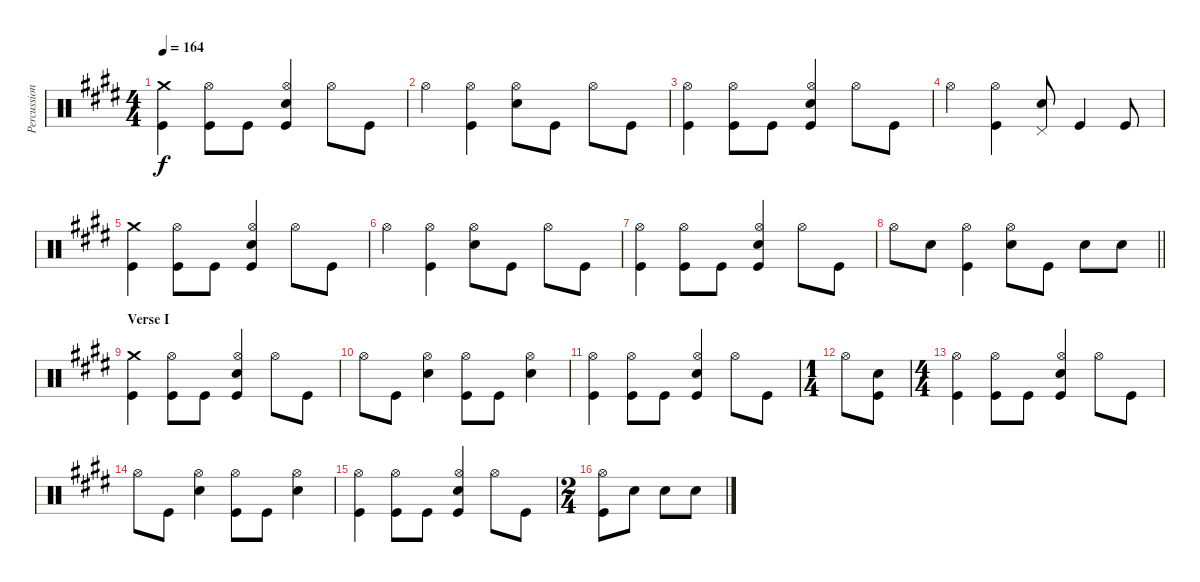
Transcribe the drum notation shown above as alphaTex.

\track ("Percussion" "Percussion") {instrument percussion}
\staff {score}
\articulation defaults
\ts (4 4)
\tempo 164
\clef neutral
\ks e
("Crash medium (hit)" "Kick (hit)").4{dy f} ("Hi-Hat (open)" "Kick (hit)").8 "Kick (hit)".8 ("Hi-Hat (open)" "Electric Snare (hit)" "Kick (hit)").4 "Hi-Hat (open)".8 "Kick (hit)".8 |
"Hi-Hat (open)".4 ("Hi-Hat (open)" "Kick (hit)").4 ("Hi-Hat (open)" "Electric Snare (hit)").8 "Kick (hit)".8 "Hi-Hat (open)".8 "Kick (hit)".8 |
("Hi-Hat (open)" "Kick (hit)").4 ("Hi-Hat (open)" "Kick (hit)").8 "Kick (hit)".8 ("Hi-Hat (open)" "Electric Snare (hit)" "Kick (hit)").4 "Hi-Hat (open)".8 "Kick (hit)".8 |
"Hi-Hat (open)".4 ("Hi-Hat (open)" "Kick (hit)").4 ("Pedal Hi-Hat (hit)" "Electric Snare (hit)").8 "Kick (hit)".4 "Kick (hit)".8 |
("Crash medium (hit)" "Kick (hit)").4 ("Hi-Hat (open)" "Kick (hit)").8 "Kick (hit)".8 ("Hi-Hat (open)" "Electric Snare (hit)" "Kick (hit)").4 "Hi-Hat (open)".8 "Kick (hit)".8 |
"Hi-Hat (open)".4 ("Hi-Hat (open)" "Kick (hit)").4 ("Hi-Hat (open)" "Electric Snare (hit)").8 "Kick (hit)".8 "Hi-Hat (open)".8 "Kick (hit)".8 |
("Hi-Hat (open)" "Kick (hit)").4 ("Hi-Hat (open)" "Kick (hit)").8 "Kick (hit)".8 ("Hi-Hat (open)" "Electric Snare (hit)" "Kick (hit)").4 "Hi-Hat (open)".8 "Kick (hit)".8 |
\barLineRight lightlight "Hi-Hat (open)".8 "Electric Snare (hit)".8
("Hi-Hat (open)" "Kick (hit)").4 ("Hi-Hat (open)" "Electric Snare (hit)").8 "Kick (hit)".8 "Electric Snare (hit)".8 "Electric Snare (hit)".8 |
\section ("" "Verse I")
("Crash medium (hit)" "Kick (hit)").4 ("Hi-Hat (open)" "Kick (hit)").8 "Kick (hit)".8 ("Hi-Hat (open)" "Electric Snare (hit)" "Kick (hit)").4 "Hi-Hat (open)".8 "Kick (hit)".8 |
"Hi-Hat (open)".8 "Kick (hit)".8 ("Hi-Hat (open)" "Electric Snare (hit)").4 ("Hi-Hat (open)" "Kick (hit)").8 "Kick (hit)".8 ("Hi-Hat (open)" "Electric Snare (hit)").4 |
("Hi-Hat (open)" "Kick (hit)").4 ("Hi-Hat (open)" "Kick (hit)").8 "Kick (hit)".8 ("Hi-Hat (open)" "Electric Snare (hit)" "Kick (hit)").4 "Hi-Hat (open)".8 "Kick (hit)".8 |
\ts (1 4)
"Hi-Hat (open)".8 ("Electric Snare (hit)" "Kick (hit)").8 |
\ts (4 4)
("Hi-Hat (open)" "Kick (hit)").4 ("Hi-Hat (open)" "Kick (hit)").8 "Kick (hit)".8 ("Hi-Hat (open)" "Electric Snare (hit)" "Kick (hit)").4 "Hi-Hat (open)".8 "Kick (hit)".8 |
"Hi-Hat (open)".8 "Kick (hit)".8 ("Hi-Hat (open)" "Electric Snare (hit)").4 ("Hi-Hat (open)" "Kick (hit)").8 "Kick (hit)".8 ("Hi-Hat (open)" "Electric Snare (hit)").4 |
("Hi-Hat (open)" "Kick (hit)").4 ("Hi-Hat (open)" "Kick (hit)").8 "Kick (hit)".8 ("Hi-Hat (open)" "Electric Snare (hit)" "Kick (hit)").4 "Hi-Hat (open)".8 "Kick (hit)".8 |
\ts (2 4)
("Hi-Hat (open)" "Kick (hit)").8 "Electric Snare (hit)".8 "Electric Snare (hit)".8 "Electric Snare (hit)".8
